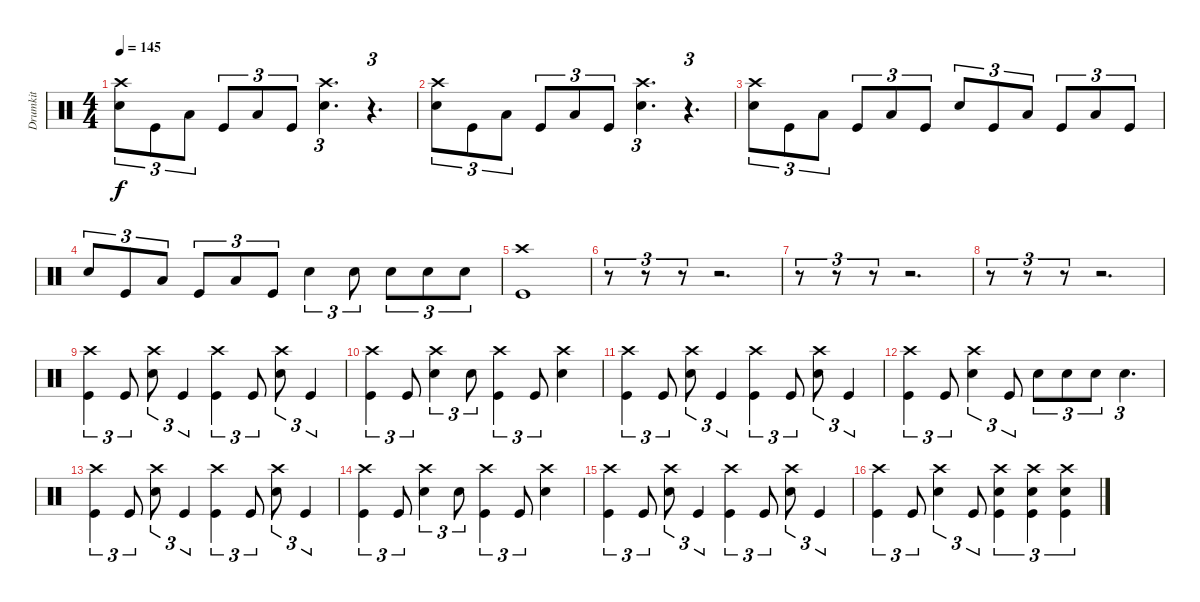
\track ("Drumkit" "Drumkit") {instrument percussion}
\staff {score}
\articulation defaults
\ts (4 4)
\tempo 145
\clef neutral
\ks c
("Crash high (hit)" "Snare (hit) 2").8{tu (3 2) dy f} "Kick (hit)".8{tu (3 2)} "Low Tom (hit)".8{tu (3 2)} "Kick (hit)".8{tu (3 2)} "Low Tom (hit)".8{tu (3 2)} "Kick (hit)".8{tu (3 2)} ("Crash high (hit)" "Snare (hit) 2").4{d tu (3 2)} r.4{d tu (3 2)} |
("Crash high (hit)" "Snare (hit) 2").8{tu (3 2)} "Kick (hit)".8{tu (3 2)} "Low Tom (hit)".8{tu (3 2)} "Kick (hit)".8{tu (3 2)} "Low Tom (hit)".8{tu (3 2)} "Kick (hit)".8{tu (3 2)} ("Crash high (hit)" "Snare (hit) 2").4{d tu (3 2)} r.4{d tu (3 2)} |
("Crash high (hit)" "Snare (hit) 2").8{tu (3 2)} "Kick (hit)".8{tu (3 2)} "Low Tom (hit)".8{tu (3 2)} "Kick (hit)".8{tu (3 2)} "Low Tom (hit)".8{tu (3 2)} "Kick (hit)".8{tu (3 2)} "Snare (hit) 2".8{tu (3 2)} "Kick (hit)".8{tu (3 2)} "Low Tom (hit)".8{tu (3 2)} "Kick (hit)".8{tu (3 2)} "Low Tom (hit)".8{tu (3 2)} "Kick (hit)".8{tu (3 2)} |
"Snare (hit) 2".8{tu (3 2)} "Kick (hit)".8{tu (3 2)} "Low Tom (hit)".8{tu (3 2)} "Kick (hit)".8{tu (3 2)} "Low Tom (hit)".8{tu (3 2)} "Kick (hit)".8{tu (3 2)} "Snare (hit) 2".4{tu (3 2)} "Snare (hit) 2".8{tu (3 2)} "Snare (hit) 2".8{tu (3 2)} "Snare (hit) 2".8{tu (3 2)} "Snare (hit) 2".8{tu (3 2)} |
("Crash high (hit)" "Kick (hit)").1 |
r.8{tu (3 2)} r.8{tu (3 2)} r.8{tu (3 2)} r.2{d} |
r.8{tu (3 2)} r.8{tu (3 2)} r.8{tu (3 2)} r.2{d} |
r.8{tu (3 2)} r.8{tu (3 2)} r.8{tu (3 2)} r.2{d} |
("Crash high (hit)" "Kick (hit)").4{tu (3 2)} "Kick (hit)".8{tu (3 2)} ("Crash high (hit)" "Snare (hit) 2").8{tu (3 2)} "Kick (hit)".4{tu (3 2)} ("Crash high (hit)" "Kick (hit)").4{tu (3 2)} "Kick (hit)".8{tu (3 2)} ("Crash high (hit)" "Snare (hit) 2").8{tu (3 2)} "Kick (hit)".4{tu (3 2)} |
("Crash high (hit)" "Kick (hit)").4{tu (3 2)} "Kick (hit)".8{tu (3 2)} ("Crash high (hit)" "Snare (hit) 2").4{tu (3 2)} "Snare (hit) 2".8{tu (3 2)} ("Crash high (hit)" "Kick (hit)").4{tu (3 2)} "Kick (hit)".8{tu (3 2)} ("Crash high (hit)" "Snare (hit) 2").4 |
("Crash high (hit)" "Kick (hit)").4{tu (3 2)} "Kick (hit)".8{tu (3 2)} ("Crash high (hit)" "Snare (hit) 2").8{tu (3 2)} "Kick (hit)".4{tu (3 2)} ("Crash high (hit)" "Kick (hit)").4{tu (3 2)} "Kick (hit)".8{tu (3 2)} ("Crash high (hit)" "Snare (hit) 2").8{tu (3 2)} "Kick (hit)".4{tu (3 2)} |
("Crash high (hit)" "Kick (hit)").4{tu (3 2)} "Kick (hit)".8{tu (3 2)} ("Crash high (hit)" "Snare (hit) 2").4{tu (3 2)} "Kick (hit)".8{tu (3 2)} "Snare (hit) 2".8{tu (3 2)} "Snare (hit) 2".8{tu (3 2)} "Snare (hit) 2".8{tu (3 2)} "Snare (hit) 2".4{d tu (3 2)} |
("Crash high (hit)" "Kick (hit)").4{tu (3 2)} "Kick (hit)".8{tu (3 2)} ("Crash high (hit)" "Snare (hit) 2").8{tu (3 2)} "Kick (hit)".4{tu (3 2)} ("Crash high (hit)" "Kick (hit)").4{tu (3 2)} "Kick (hit)".8{tu (3 2)} ("Crash high (hit)" "Snare (hit) 2").8{tu (3 2)} "Kick (hit)".4{tu (3 2)} |
("Crash high (hit)" "Kick (hit)").4{tu (3 2)} "Kick (hit)".8{tu (3 2)} ("Crash high (hit)" "Snare (hit) 2").4{tu (3 2)} "Snare (hit) 2".8{tu (3 2)} ("Crash high (hit)" "Kick (hit)").4{tu (3 2)} "Kick (hit)".8{tu (3 2)} ("Crash high (hit)" "Snare (hit) 2").4 |
("Crash high (hit)" "Kick (hit)").4{tu (3 2)} "Kick (hit)".8{tu (3 2)} ("Crash high (hit)" "Snare (hit) 2").8{tu (3 2)} "Kick (hit)".4{tu (3 2)} ("Crash high (hit)" "Kick (hit)").4{tu (3 2)} "Kick (hit)".8{tu (3 2)} ("Crash high (hit)" "Snare (hit) 2").8{tu (3 2)} "Kick (hit)".4{tu (3 2)} |
("Crash high (hit)" "Kick (hit)").4{tu (3 2)} "Kick (hit)".8{tu (3 2)} ("Crash high (hit)" "Snare (hit) 2").4{tu (3 2)} "Kick (hit)".8{tu (3 2)} ("Crash high (hit)" "Snare (hit) 2" "Kick (hit)").4{tu (3 2)} ("Crash high (hit)" "Snare (hit) 2" "Kick (hit)").4{tu (3 2)} ("Crash high (hit)" "Snare (hit) 2" "Kick (hit)").4{tu (3 2)}
